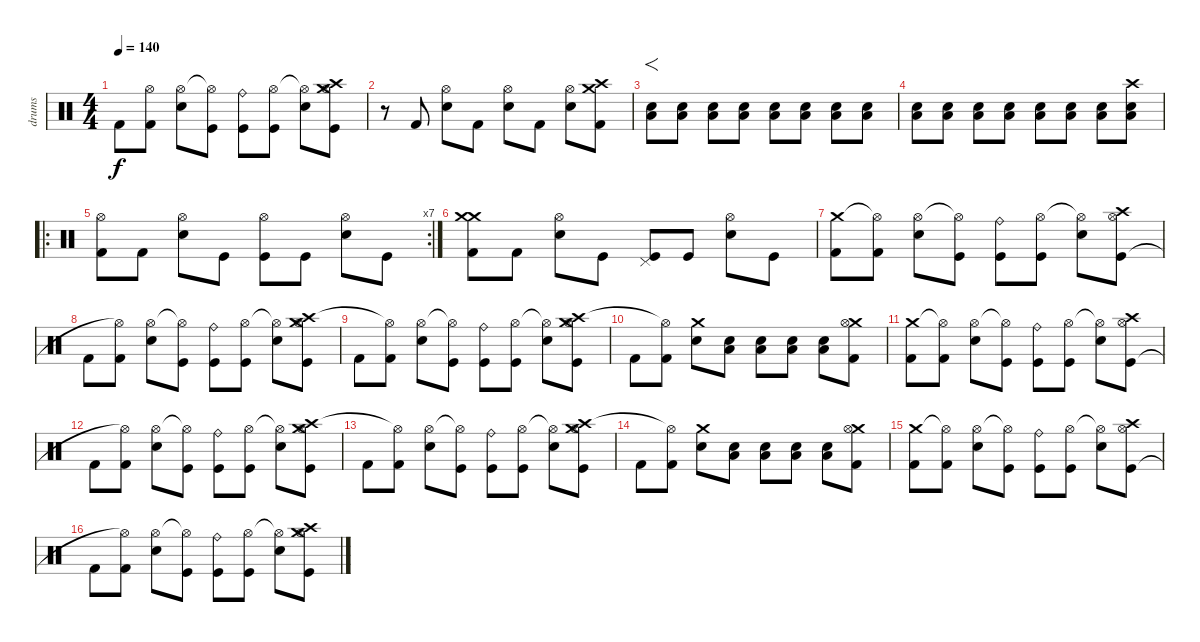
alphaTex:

\track ("drums" "drums") {instrument percussion}
\staff {score}
\articulation defaults
\ts (4 4)
\tempo 140
\clef neutral
\ks c "Kick (hit) 2".8{dy f}
("Kick (hit) 2" "Hi-Hat (open)"{t}).8 ("Snare (hit) 2" "Hi-Hat (open)").8 ("Kick (hit)" "Hi-Hat (open)"{t}).8 ("Kick (hit)" "Ride (bell)").8 ("Kick (hit)" "Hi-Hat (open)").8 ("Snare (hit) 2" "Hi-Hat (open)"{t}).8 ("Crash medium (hit)" "Crash high (hit)" "Kick (hit)" "Hi-Hat (open)").8 |
r.8 "Kick (hit) 2".8 ("Hi-Hat (open)" "Snare (hit) 2").8 "Kick (hit) 2".8 ("Hi-Hat (open)" "Snare (hit) 2").8 "Kick (hit) 2".8 ("Hi-Hat (open)" "Snare (hit) 2").8 ("Crash high (hit)" "Crash medium (hit)" "Kick (hit) 2").8 |
("Snare (hit) 2" "Low Floor Tom (hit)").8{f volume 8} ("Snare (hit) 2" "Low Floor Tom (hit)").8 ("Snare (hit) 2" "Low Floor Tom (hit)").8 ("Snare (hit) 2" "Low Floor Tom (hit)").8{volume 10} ("Snare (hit) 2" "Low Floor Tom (hit)").8 ("Snare (hit) 2" "Low Floor Tom (hit)").8 ("Snare (hit) 2" "Low Floor Tom (hit)").8 ("Snare (hit) 2" "Low Floor Tom (hit)").8 |
("Snare (hit) 2" "Low Floor Tom (hit)").8 ("Snare (hit) 2" "Low Floor Tom (hit)").8 ("Snare (hit) 2" "Low Floor Tom (hit)").8 ("Snare (hit) 2" "Low Floor Tom (hit)").8{volume 12} ("Snare (hit) 2" "Low Floor Tom (hit)").8 ("Snare (hit) 2" "Low Floor Tom (hit)").8 ("Snare (hit) 2" "Low Floor Tom (hit)").8 ("Crash high (hit)" "Snare (hit) 2" "Low Floor Tom (hit)").8 |
\ro
\rc 7
("Kick (hit) 2" "Hi-Hat (open)").8 "Kick (hit) 2".8 ("Snare (hit) 2" "Hi-Hat (open)").8 "Kick (hit)".8 ("Kick (hit)" "Hi-Hat (open)").8 "Kick (hit)".8 ("Snare (hit) 2" "Hi-Hat (open)").8 "Kick (hit)".8 |
("Crash medium (hit)" "Kick (hit) 2" "Crash medium (hit)").8 "Kick (hit) 2".8 ("Snare (hit) 2" "Hi-Hat (open)").8 "Kick (hit)".8 ("Kick (hit)" "Pedal Hi-Hat (hit)").8 "Kick (hit)".8 ("Snare (hit) 2" "Hi-Hat (open)").8 "Kick (hit)".8 |
("Kick (hit) 2" "Crash medium (hit)").8 ("Kick (hit) 2" "Hi-Hat (open)"{t}).8 ("Snare (hit) 2" "Hi-Hat (open)").8 ("Kick (hit)" "Hi-Hat (open)"{t}).8 ("Kick (hit)" "Ride (bell)").8 ("Kick (hit)" "Hi-Hat (open)").8 ("Snare (hit) 2" "Hi-Hat (open)"{t}).8 ("Crash high (hit)" "Kick (hit)" "Hi-Hat (open)").8 |
"Kick (hit) 2".8 ("Kick (hit) 2" "Hi-Hat (open)"{t}).8 ("Snare (hit) 2" "Hi-Hat (open)").8 ("Kick (hit)" "Hi-Hat (open)"{t}).8 ("Kick (hit)" "Ride (bell)").8 ("Kick (hit)" "Hi-Hat (open)").8 ("Snare (hit) 2" "Hi-Hat (open)"{t}).8 ("Crash medium (hit)" "Crash high (hit)" "Kick (hit)" "Hi-Hat (open)").8 |
"Kick (hit) 2".8 ("Kick (hit) 2" "Hi-Hat (open)"{t}).8 ("Snare (hit) 2" "Hi-Hat (open)").8 ("Kick (hit)" "Hi-Hat (open)"{t}).8 ("Kick (hit)" "Ride (bell)").8 ("Kick (hit)" "Hi-Hat (open)").8 ("Snare (hit) 2" "Hi-Hat (open)"{t}).8 ("Crash medium (hit)" "Crash high (hit)" "Kick (hit)" "Hi-Hat (open)").8 |
"Kick (hit) 2".8 ("Kick (hit) 2" "Hi-Hat (open)"{t}).8 ("Snare (hit) 2" "Crash medium (hit)").8 ("Snare (hit) 2" "Low Floor Tom (hit)").8 ("Snare (hit) 2" "Low Floor Tom (hit)").8 ("Snare (hit) 2" "Low Floor Tom (hit)").8 ("Snare (hit) 2" "Low Floor Tom (hit)").8 ("Crash medium (hit)" "Kick (hit) 2" "Hi-Hat (open)").8 |
("Kick (hit) 2" "Crash medium (hit)").8 ("Kick (hit) 2" "Hi-Hat (open)"{t}).8 ("Snare (hit) 2" "Hi-Hat (open)").8 ("Kick (hit)" "Hi-Hat (open)"{t}).8 ("Kick (hit)" "Ride (bell)").8 ("Kick (hit)" "Hi-Hat (open)").8 ("Snare (hit) 2" "Hi-Hat (open)"{t}).8 ("Crash high (hit)" "Kick (hit)" "Hi-Hat (open)").8 |
"Kick (hit) 2".8 ("Kick (hit) 2" "Hi-Hat (open)"{t}).8 ("Snare (hit) 2" "Hi-Hat (open)").8 ("Kick (hit)" "Hi-Hat (open)"{t}).8 ("Kick (hit)" "Ride (bell)").8 ("Kick (hit)" "Hi-Hat (open)").8 ("Snare (hit) 2" "Hi-Hat (open)"{t}).8 ("Crash medium (hit)" "Crash high (hit)" "Kick (hit)" "Hi-Hat (open)").8 |
"Kick (hit) 2".8 ("Kick (hit) 2" "Hi-Hat (open)"{t}).8 ("Snare (hit) 2" "Hi-Hat (open)").8 ("Kick (hit)" "Hi-Hat (open)"{t}).8 ("Kick (hit)" "Ride (bell)").8 ("Kick (hit)" "Hi-Hat (open)").8 ("Snare (hit) 2" "Hi-Hat (open)"{t}).8 ("Crash medium (hit)" "Crash high (hit)" "Kick (hit)" "Hi-Hat (open)").8 |
"Kick (hit) 2".8 ("Kick (hit) 2" "Hi-Hat (open)"{t}).8 ("Snare (hit) 2" "Crash medium (hit)").8 ("Snare (hit) 2" "Low Floor Tom (hit)").8 ("Snare (hit) 2" "Low Floor Tom (hit)").8 ("Snare (hit) 2" "Low Floor Tom (hit)").8 ("Snare (hit) 2" "Low Floor Tom (hit)").8 ("Crash medium (hit)" "Kick (hit) 2" "Hi-Hat (open)").8 |
("Kick (hit) 2" "Crash medium (hit)").8 ("Kick (hit) 2" "Hi-Hat (open)"{t}).8 ("Snare (hit) 2" "Hi-Hat (open)").8 ("Kick (hit)" "Hi-Hat (open)"{t}).8 ("Kick (hit)" "Ride (bell)").8 ("Kick (hit)" "Hi-Hat (open)").8 ("Snare (hit) 2" "Hi-Hat (open)"{t}).8 ("Crash high (hit)" "Kick (hit)" "Hi-Hat (open)").8 |
"Kick (hit) 2".8 ("Kick (hit) 2" "Hi-Hat (open)"{t}).8 ("Snare (hit) 2" "Hi-Hat (open)").8 ("Kick (hit)" "Hi-Hat (open)"{t}).8 ("Kick (hit)" "Ride (bell)").8 ("Kick (hit)" "Hi-Hat (open)").8 ("Snare (hit) 2" "Hi-Hat (open)"{t}).8 ("Crash medium (hit)" "Crash high (hit)" "Kick (hit)" "Hi-Hat (open)").8
